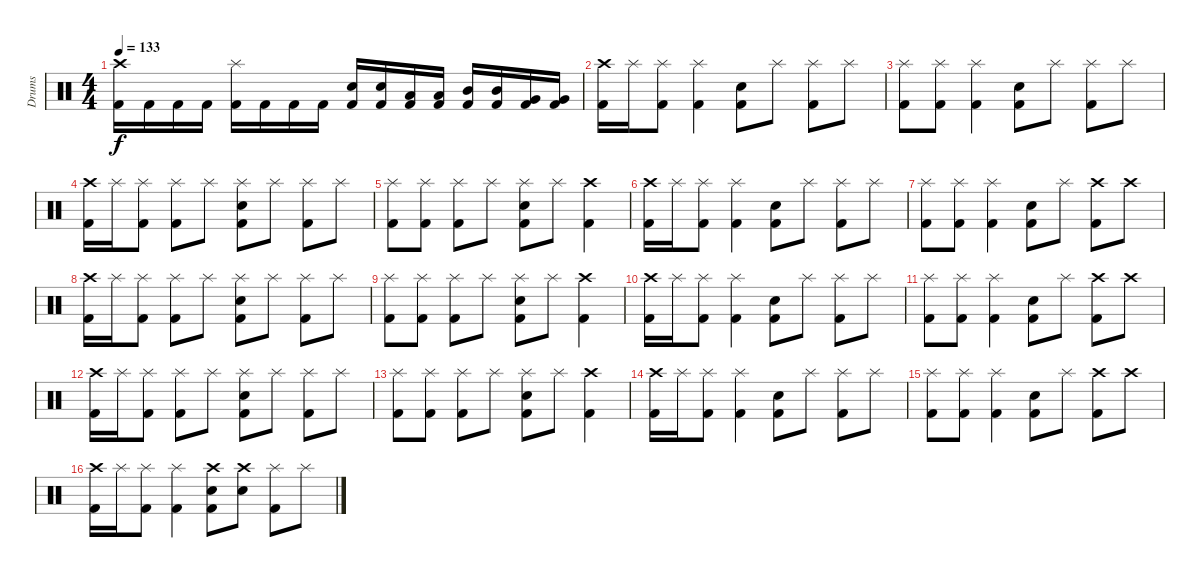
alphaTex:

\track ("Drums" "Drums") {instrument percussion}
\staff {score}
\articulation defaults
\ts (4 4)
\tempo 133
\clef neutral
\ks c
("Kick (hit) 2" "Crash high (hit)").16{dy f} "Kick (hit) 2".16 "Kick (hit) 2".16 "Kick (hit) 2".16 ("Kick (hit) 2" "Splash (hit)").16 "Kick (hit) 2".16 "Kick (hit) 2".16 "Kick (hit) 2".16 ("Kick (hit) 2" "Snare (hit) 2").16 ("Kick (hit) 2" "Snare (hit) 2").16 ("Kick (hit) 2" "Low Tom (hit)").16 ("Kick (hit) 2" "Low Tom (hit)").16 ("Kick (hit) 2" "Mid Tom (hit)").16 ("Kick (hit) 2" "Mid Tom (hit)").16 ("Kick (hit) 2" "Very Low Tom (hit)").16 ("Kick (hit) 2" "Very Low Tom (hit)").16 |
("Kick (hit) 2" "Crash high (hit)").16 "Splash (hit)".16 ("Kick (hit) 2" "Splash (hit)").8 ("Kick (hit) 2" "Splash (hit)").4 ("Kick (hit) 2" "Snare (hit) 2").8 "Splash (hit)".8 ("Kick (hit) 2" "Splash (hit)").8 "Splash (hit)".8 |
("Kick (hit) 2" "Splash (hit)").8 ("Kick (hit) 2" "Splash (hit)").8 ("Kick (hit) 2" "Splash (hit)").4 ("Kick (hit) 2" "Snare (hit) 2").8 "Splash (hit)".8 ("Kick (hit) 2" "Splash (hit)").8 "Splash (hit)".8 |
("Kick (hit) 2" "Crash high (hit)").16 "Splash (hit)".16 ("Kick (hit) 2" "Splash (hit)").8 ("Kick (hit) 2" "Splash (hit)").8 "Splash (hit)".8 ("Kick (hit) 2" "Snare (hit) 2" "Splash (hit)").8 "Splash (hit)".8 ("Kick (hit) 2" "Splash (hit)").8 "Splash (hit)".8 |
("Kick (hit) 2" "Splash (hit)").8 ("Kick (hit) 2" "Splash (hit)").8 ("Kick (hit) 2" "Splash (hit)").8 "Splash (hit)".8 ("Kick (hit) 2" "Snare (hit) 2" "Splash (hit)").8 "Splash (hit)".8 ("Kick (hit) 2" "Crash high (hit)").4 |
("Kick (hit) 2" "Crash high (hit)").16 "Splash (hit)".16 ("Kick (hit) 2" "Splash (hit)").8 ("Kick (hit) 2" "Splash (hit)").4 ("Kick (hit) 2" "Snare (hit) 2").8 "Splash (hit)".8 ("Kick (hit) 2" "Splash (hit)").8 "Splash (hit)".8 |
("Kick (hit) 2" "Splash (hit)").8 ("Kick (hit) 2" "Splash (hit)").8 ("Kick (hit) 2" "Splash (hit)").4 ("Kick (hit) 2" "Snare (hit) 2").8 "Splash (hit)".8 ("Kick (hit) 2" "Crash high (hit)").8 "Crash high (hit)".8 |
("Kick (hit) 2" "Crash high (hit)").16 "Splash (hit)".16 ("Kick (hit) 2" "Splash (hit)").8 ("Kick (hit) 2" "Splash (hit)").8 "Splash (hit)".8 ("Kick (hit) 2" "Snare (hit) 2" "Splash (hit)").8 "Splash (hit)".8 ("Kick (hit) 2" "Splash (hit)").8 "Splash (hit)".8 |
("Kick (hit) 2" "Splash (hit)").8 ("Kick (hit) 2" "Splash (hit)").8 ("Kick (hit) 2" "Splash (hit)").8 "Splash (hit)".8 ("Kick (hit) 2" "Snare (hit) 2" "Splash (hit)").8 "Splash (hit)".8 ("Kick (hit) 2" "Crash high (hit)").4 |
("Kick (hit) 2" "Crash high (hit)").16 "Splash (hit)".16 ("Kick (hit) 2" "Splash (hit)").8 ("Kick (hit) 2" "Splash (hit)").4 ("Kick (hit) 2" "Snare (hit) 2").8 "Splash (hit)".8 ("Kick (hit) 2" "Splash (hit)").8 "Splash (hit)".8 |
("Kick (hit) 2" "Splash (hit)").8 ("Kick (hit) 2" "Splash (hit)").8 ("Kick (hit) 2" "Splash (hit)").4 ("Kick (hit) 2" "Snare (hit) 2").8 "Splash (hit)".8 ("Kick (hit) 2" "Crash high (hit)").8 "Crash high (hit)".8 |
("Kick (hit) 2" "Crash high (hit)").16 "Splash (hit)".16 ("Kick (hit) 2" "Splash (hit)").8 ("Kick (hit) 2" "Splash (hit)").8 "Splash (hit)".8 ("Kick (hit) 2" "Snare (hit) 2" "Splash (hit)").8 "Splash (hit)".8 ("Kick (hit) 2" "Splash (hit)").8 "Splash (hit)".8 |
("Kick (hit) 2" "Splash (hit)").8 ("Kick (hit) 2" "Splash (hit)").8 ("Kick (hit) 2" "Splash (hit)").8 "Splash (hit)".8 ("Kick (hit) 2" "Snare (hit) 2" "Splash (hit)").8 "Splash (hit)".8 ("Kick (hit) 2" "Crash high (hit)").4 |
("Kick (hit) 2" "Crash high (hit)").16 "Splash (hit)".16 ("Kick (hit) 2" "Splash (hit)").8 ("Kick (hit) 2" "Splash (hit)").4 ("Kick (hit) 2" "Snare (hit) 2").8 "Splash (hit)".8 ("Kick (hit) 2" "Splash (hit)").8 "Splash (hit)".8 |
("Kick (hit) 2" "Splash (hit)").8 ("Kick (hit) 2" "Splash (hit)").8 ("Kick (hit) 2" "Splash (hit)").4 ("Kick (hit) 2" "Snare (hit) 2").8 "Splash (hit)".8 ("Kick (hit) 2" "Crash high (hit)").8 "Crash high (hit)".8 |
("Kick (hit) 2" "Crash high (hit)").16 "Splash (hit)".16 ("Kick (hit) 2" "Splash (hit)").8 ("Kick (hit) 2" "Splash (hit)").4 ("Kick (hit) 2" "Snare (hit) 2" "Crash high (hit)").8 ("Snare (hit) 2" "Crash high (hit)").8 ("Kick (hit) 2" "Splash (hit)").8 "Splash (hit)".8
